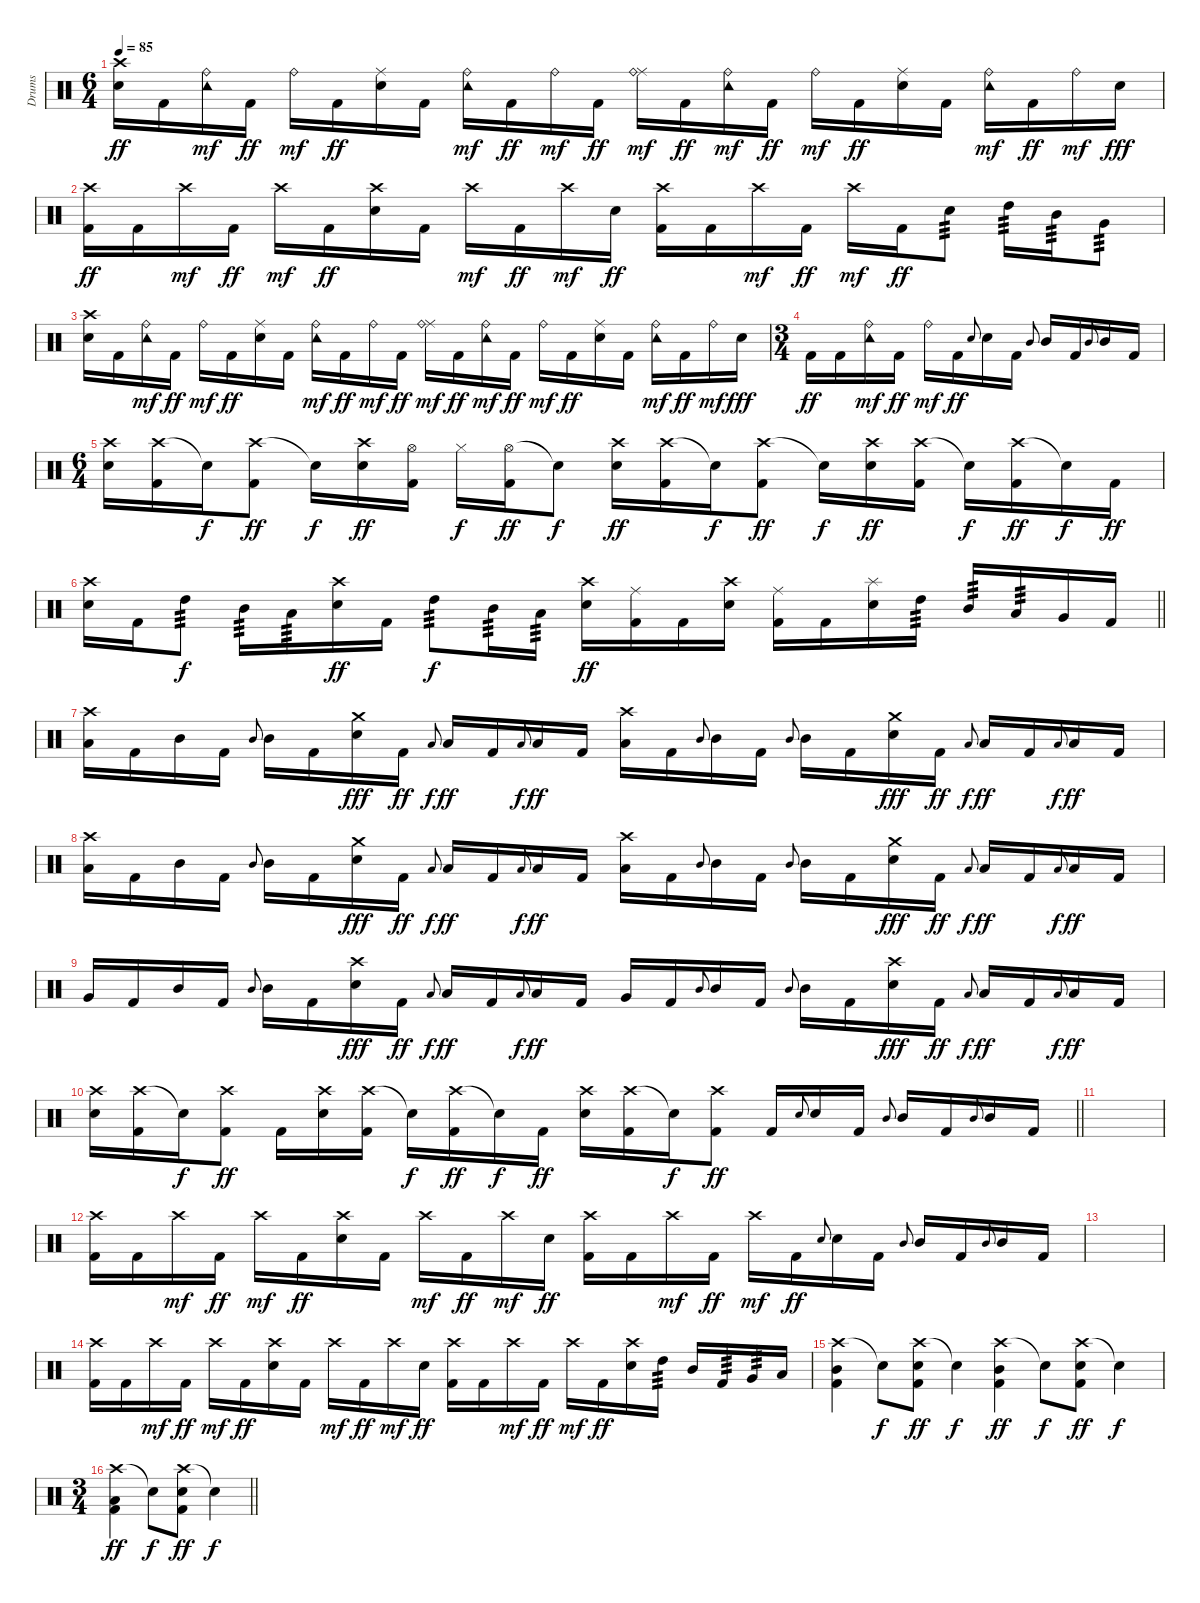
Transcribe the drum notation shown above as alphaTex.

\track ("Drums" "Drums") {instrument percussion}
\staff {score}
\articulation defaults
\ts (6 4)
\tempo 85
\clef neutral
\ks c
("Crash high (hit)" "Snare (hit) 2").16{dy ff} "Kick (hit) 2".16 ("Tambourine (hit)" "Ride (bell)").16{dy mf} "Kick (hit) 2".16{dy ff} "Ride (bell)".16{dy mf} "Kick (hit) 2".16{dy ff} ("Ride (middle)" "Snare (hit) 2").16 "Kick (hit) 2".16 ("Tambourine (hit)" "Ride (bell)").16{dy mf} "Kick (hit) 2".16{dy ff} "Ride (bell)".16{dy mf} "Kick (hit) 2".16{dy ff} ("Ride (middle)" "Ride (bell)").16{dy mf} "Kick (hit) 2".16{dy ff} ("Tambourine (hit)" "Ride (bell)").16{dy mf} "Kick (hit) 2".16{dy ff} "Ride (bell)".16{dy mf} "Kick (hit) 2".16{dy ff} ("Ride (middle)" "Snare (hit) 2").16 "Kick (hit) 2".16 ("Tambourine (hit)" "Ride (bell)").16{dy mf} "Kick (hit) 2".16{dy ff} "Ride (bell)".16{dy mf} "Snare (hit) 2".16{dy fff} |
("Crash high (hit)" "Kick (hit) 2").16{dy ff} "Kick (hit) 2".16 "Crash high (hit)".16{dy mf} "Kick (hit) 2".16{dy ff} "Crash high (hit)".16{dy mf} "Kick (hit) 2".16{dy ff} ("Crash high (hit)" "Snare (hit) 2").16 "Kick (hit) 2".16 "Crash high (hit)".16{dy mf} "Kick (hit) 2".16{dy ff} "Crash high (hit)".16{dy mf} "Snare (hit) 2".16{dy ff} ("Crash high (hit)" "Kick (hit) 2").16 "Kick (hit) 2".16 "Crash high (hit)".16{dy mf} "Kick (hit) 2".16{dy ff} "Crash high (hit)".16{dy mf} "Kick (hit) 2".16{dy ff} "Snare (hit) 2".8{tp 3} "High Tom (hit)".16{tp 3} "Mid Tom (hit)".16{tp 3} "Very Low Tom (hit)".8{tp 3} |
("Crash high (hit)" "Snare (hit) 2").16 "Kick (hit) 2".16 ("Tambourine (hit)" "Ride (bell)").16{dy mf} "Kick (hit) 2".16{dy ff} "Ride (bell)".16{dy mf} "Kick (hit) 2".16{dy ff} ("Ride (middle)" "Snare (hit) 2").16 "Kick (hit) 2".16 ("Tambourine (hit)" "Ride (bell)").16{dy mf} "Kick (hit) 2".16{dy ff} "Ride (bell)".16{dy mf} "Kick (hit) 2".16{dy ff} ("Ride (middle)" "Ride (bell)").16{dy mf} "Kick (hit) 2".16{dy ff} ("Tambourine (hit)" "Ride (bell)").16{dy mf} "Kick (hit) 2".16{dy ff} "Ride (bell)".16{dy mf} "Kick (hit) 2".16{dy ff} ("Ride (middle)" "Snare (hit) 2").16 "Kick (hit) 2".16 ("Tambourine (hit)" "Ride (bell)").16{dy mf} "Kick (hit) 2".16{dy ff} "Ride (bell)".16{dy mf} "Snare (hit) 2".16{dy fff} |
\ts (3 4)
"Kick (hit) 2".16{dy ff} "Kick (hit) 2".16 ("Tambourine (hit)" "Ride (bell)").16{dy mf} "Kick (hit) 2".16{dy ff} "Ride (bell)".16{dy mf} "Kick (hit) 2".16{dy ff} "Snare (hit) 2".8{gr onbeat} "Snare (hit) 2".16 "Kick (hit) 2".16 "Mid Tom (hit)".8{gr onbeat} "Mid Tom (hit)".16 "Kick (hit) 2".16 "Mid Tom (hit)".8{gr onbeat} "Mid Tom (hit)".16 "Kick (hit) 2".16 |
\ts (6 4)
("Crash high (hit)" "Snare (hit) 2").16 ("Crash high (hit)" "Kick (hit) 2").16 "Snare (hit)"{t}.16{dy f} ("Crash high (hit)" "Kick (hit) 2").8{dy ff} "Snare (hit)"{t}.16{dy f} ("Crash high (hit)" "Snare (hit) 2").16{dy ff} ("Hi-Hat (open)" "Kick (hit) 2").16 "Hi-Hat (closed)".16{dy f} ("Hi-Hat (open)" "Kick (hit) 2").16{dy ff} "Snare (hit)"{t}.8{dy f} ("Crash high (hit)" "Snare (hit) 2").16{dy ff} ("Crash high (hit)" "Kick (hit) 2").16 "Snare (hit)"{t}.16{dy f} ("Crash high (hit)" "Kick (hit) 2").8{dy ff} "Snare (hit)"{t}.16{dy f} ("Crash high (hit)" "Snare (hit) 2").16{dy ff} ("Crash high (hit)" "Kick (hit) 2").16 "Snare (hit)"{t}.16{dy f} ("Crash high (hit)" "Kick (hit) 2").16{dy ff} "Snare (hit)"{t}.16{dy f} "Kick (hit) 2".16{dy ff} |
\barLineRight lightlight
("Crash high (hit)" "Snare (hit) 2").16 "Kick (hit) 2".16 "High Tom (hit)".8{tp 3 dy f} "Mid Tom (hit)".16{tp 3} "Low Tom (hit)".16{tp 3} ("Crash high (hit)" "Snare (hit) 2").16{dy ff} "Kick (hit) 2".16 "High Tom (hit)".8{tp 3 dy f} "Mid Tom (hit)".16{tp 3} "Low Tom (hit)".16{tp 3} ("Crash high (hit)" "Snare (hit) 2").16{dy ff} ("Ride (middle)" "Kick (hit) 2").16 "Kick (hit) 2".16 ("Crash high (hit)" "Snare (hit) 2").16 ("Ride (middle)" "Kick (hit) 2").16 "Kick (hit) 2".16 ("Splash (hit)" "Snare (hit) 2").16 "High Tom (hit)".16{tp 3} "Mid Tom (hit)".16{tp 3} "Low Tom (hit)".16{tp 3} "Very Low Tom (hit)".16 "Kick (hit) 2".16 |
\section ("" "")
("Crash high (hit)" "Low Tom (hit)").16 "Kick (hit) 2".16 "Mid Tom (hit)".16 "Kick (hit) 2".16 "Mid Tom (hit)".8{gr onbeat} "Mid Tom (hit)".16 "Kick (hit) 2".16 ("Crash medium (hit)" "Snare (hit) 2").16{dy fff} "Kick (hit) 2".16{dy ff} "Low Tom (hit)".8{gr onbeat dy f} "Low Tom (hit)".16{dy ff} "Kick (hit) 2".16 "Low Tom (hit)".8{gr onbeat dy f} "Low Tom (hit)".16{dy ff} "Kick (hit) 2".16 ("Crash high (hit)" "Low Tom (hit)").16 "Kick (hit) 2".16 "Mid Tom (hit)".8{gr onbeat} "Mid Tom (hit)".16 "Kick (hit) 2".16 "Mid Tom (hit)".8{gr onbeat} "Mid Tom (hit)".16 "Kick (hit) 2".16 ("Crash medium (hit)" "Snare (hit) 2").16{dy fff} "Kick (hit) 2".16{dy ff} "Low Tom (hit)".8{gr onbeat dy f} "Low Tom (hit)".16{dy ff} "Kick (hit) 2".16 "Low Tom (hit)".8{gr onbeat dy f} "Low Tom (hit)".16{dy ff} "Kick (hit) 2".16 |
("Crash high (hit)" "Low Tom (hit)").16 "Kick (hit) 2".16 "Mid Tom (hit)".16 "Kick (hit) 2".16 "Mid Tom (hit)".8{gr onbeat} "Mid Tom (hit)".16 "Kick (hit) 2".16 ("Crash medium (hit)" "Snare (hit) 2").16{dy fff} "Kick (hit) 2".16{dy ff} "Low Tom (hit)".8{gr onbeat dy f} "Low Tom (hit)".16{dy ff} "Kick (hit) 2".16 "Low Tom (hit)".8{gr onbeat dy f} "Low Tom (hit)".16{dy ff} "Kick (hit) 2".16 ("Crash high (hit)" "Low Tom (hit)").16 "Kick (hit) 2".16 "Mid Tom (hit)".8{gr onbeat} "Mid Tom (hit)".16 "Kick (hit) 2".16 "Mid Tom (hit)".8{gr onbeat} "Mid Tom (hit)".16 "Kick (hit) 2".16 ("Crash medium (hit)" "Snare (hit) 2").16{dy fff} "Kick (hit) 2".16{dy ff} "Low Tom (hit)".8{gr onbeat dy f} "Low Tom (hit)".16{dy ff} "Kick (hit) 2".16 "Low Tom (hit)".8{gr onbeat dy f} "Low Tom (hit)".16{dy ff} "Kick (hit) 2".16 |
"Very Low Tom (hit)".16 "Kick (hit) 2".16 "Mid Tom (hit)".16 "Kick (hit) 2".16 "Mid Tom (hit)".8{gr onbeat} "Mid Tom (hit)".16 "Kick (hit) 2".16 ("Crash high (hit)" "Snare (hit) 2").16{dy fff} "Kick (hit) 2".16{dy ff} "Low Tom (hit)".8{gr onbeat dy f} "Low Tom (hit)".16{dy ff} "Kick (hit) 2".16 "Low Tom (hit)".8{gr onbeat dy f} "Low Tom (hit)".16{dy ff} "Kick (hit) 2".16 "Very Low Tom (hit)".16 "Kick (hit) 2".16 "Mid Tom (hit)".8{gr onbeat} "Mid Tom (hit)".16 "Kick (hit) 2".16 "Mid Tom (hit)".8{gr onbeat} "Mid Tom (hit)".16 "Kick (hit) 2".16 ("Crash high (hit)" "Snare (hit) 2").16{dy fff} "Kick (hit) 2".16{dy ff} "Low Tom (hit)".8{gr onbeat dy f} "Low Tom (hit)".16{dy ff} "Kick (hit) 2".16 "Low Tom (hit)".8{gr onbeat dy f} "Low Tom (hit)".16{dy ff} "Kick (hit) 2".16 |
\barLineRight lightlight
("Crash high (hit)" "Snare (hit) 2").16 ("Crash high (hit)" "Kick (hit) 2").16 "Snare (hit)"{t}.16{dy f} ("Crash high (hit)" "Kick (hit) 2").8{dy ff} "Kick (hit) 2".16 ("Crash high (hit)" "Snare (hit) 2").16 ("Crash high (hit)" "Kick (hit) 2").16 "Snare (hit)"{t}.16{dy f} ("Crash high (hit)" "Kick (hit) 2").16{dy ff} "Snare (hit)"{t}.16{dy f} "Kick (hit) 2".16{dy ff} ("Crash high (hit)" "Snare (hit) 2").16 ("Crash high (hit)" "Kick (hit) 2").16 "Snare (hit)"{t}.16{dy f} ("Crash high (hit)" "Kick (hit) 2").8{dy ff} "Kick (hit) 2".16 "Snare (hit) 2".8{gr onbeat} "Snare (hit) 2".16 "Kick (hit) 2".16 "Mid Tom (hit)".8{gr onbeat} "Mid Tom (hit)".16 "Kick (hit) 2".16 "Mid Tom (hit)".8{gr onbeat} "Mid Tom (hit)".16 "Kick (hit) 2".16 |
\section ("" "")
|
("Crash high (hit)" "Kick (hit) 2").16 "Kick (hit) 2".16 "Crash high (hit)".16{dy mf} "Kick (hit) 2".16{dy ff} "Crash high (hit)".16{dy mf} "Kick (hit) 2".16{dy ff} ("Crash high (hit)" "Snare (hit) 2").16 "Kick (hit) 2".16 "Crash high (hit)".16{dy mf} "Kick (hit) 2".16{dy ff} "Crash high (hit)".16{dy mf} "Snare (hit) 2".16{dy ff} ("Crash high (hit)" "Kick (hit) 2").16 "Kick (hit) 2".16 "Crash high (hit)".16{dy mf} "Kick (hit) 2".16{dy ff} "Crash high (hit)".16{dy mf} "Kick (hit) 2".16{dy ff} "Snare (hit) 2".8{gr onbeat} "Snare (hit) 2".16 "Kick (hit) 2".16 "Mid Tom (hit)".8{gr onbeat} "Mid Tom (hit)".16 "Kick (hit) 2".16 "Mid Tom (hit)".8{gr onbeat} "Mid Tom (hit)".16 "Kick (hit) 2".16 |
|
("Crash high (hit)" "Kick (hit) 2").16 "Kick (hit) 2".16 "Crash high (hit)".16{dy mf} "Kick (hit) 2".16{dy ff} "Crash high (hit)".16{dy mf} "Kick (hit) 2".16{dy ff} ("Crash high (hit)" "Snare (hit) 2").16 "Kick (hit) 2".16 "Crash high (hit)".16{dy mf} "Kick (hit) 2".16{dy ff} "Crash high (hit)".16{dy mf} "Snare (hit) 2".16{dy ff} ("Crash high (hit)" "Kick (hit) 2").16 "Kick (hit) 2".16 "Crash high (hit)".16{dy mf} "Kick (hit) 2".16{dy ff} "Crash high (hit)".16{dy mf} "Kick (hit) 2".16{dy ff} ("Crash high (hit)" "Snare (hit) 2").16 "High Tom (hit)".16{tp 3} "Mid Tom (hit)".16 "Kick (hit) 2".16{tp 3} "Very Low Tom (hit)".16{tp 3} "Low Floor Tom (hit)".16 |
("Crash high (hit)" "Mid Tom (hit)" "Kick (hit) 2").4 "Snare (hit)"{t}.8{dy f} ("Crash high (hit)" "Snare (hit) 2" "Kick (hit) 2").8{dy ff} "Snare (hit)"{t}.4{dy f} ("Crash high (hit)" "Mid Tom (hit)" "Kick (hit) 2").4{dy ff} "Snare (hit)"{t}.8{dy f} ("Crash high (hit)" "Snare (hit) 2" "Kick (hit) 2").8{dy ff} "Snare (hit)"{t}.4{dy f} |
\ts (3 4)
\barLineRight lightlight
("Crash high (hit)" "Low Tom (hit)" "Kick (hit) 2").4{dy ff} "Snare (hit)"{t}.8{dy f} ("Crash high (hit)" "Snare (hit) 2" "Kick (hit) 2").8{dy ff} "Snare (hit)"{t}.4{dy f}
